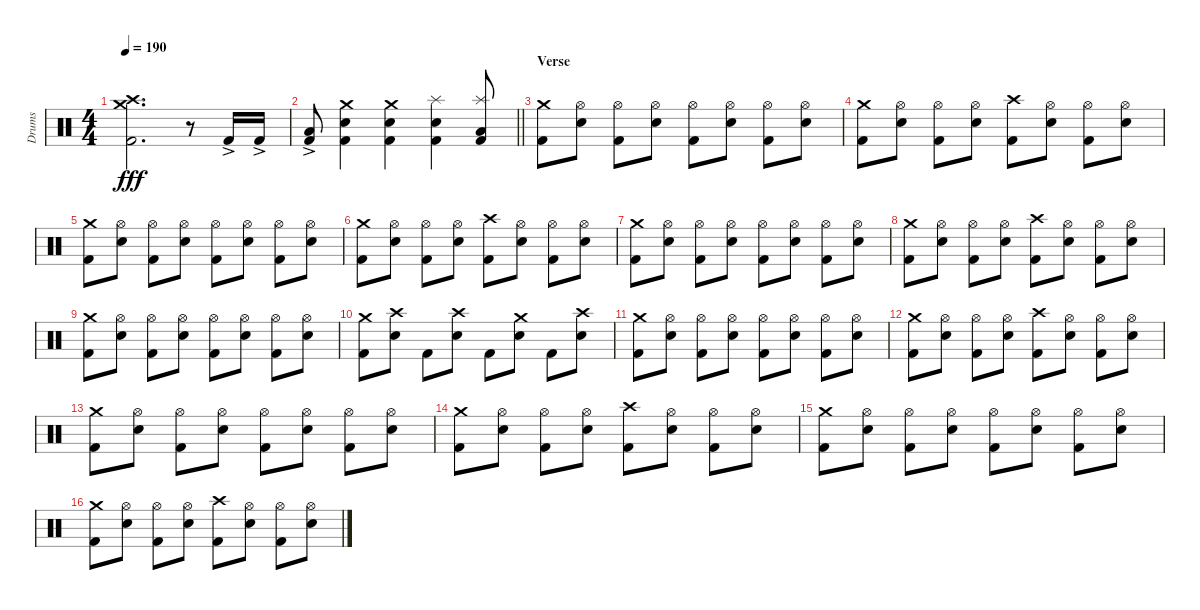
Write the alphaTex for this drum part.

\track ("Drums" "Drums") {instrument percussion}
\staff {score}
\articulation defaults
\ts (4 4)
\tempo 190
\clef neutral
\ks c
("Crash high (hit)" "Crash medium (hit)" "Kick (hit) 2").2{d dy fff} r.8 "Kick (hit) 2"{ac}.16 "Kick (hit) 2"{ac}.16 |
\barLineRight lightlight
("Low Tom (hit)" "Kick (hit) 2"{ac}).8 ("Crash medium (hit)" "Electric Snare (hit)" "Kick (hit) 2").4 ("Crash medium (hit)" "Electric Snare (hit)" "Kick (hit) 2").4 ("Splash (hit)" "Electric Snare (hit)" "Kick (hit) 2").4 ("Splash (hit)" "Low Floor Tom (hit)" "Kick (hit) 2").8 |
\section ("" "Verse")
("Crash medium (hit)" "Kick (hit) 2").8 ("Hi-Hat (open)" "Electric Snare (hit)").8 ("Hi-Hat (open)" "Kick (hit) 2").8 ("Hi-Hat (open)" "Electric Snare (hit)").8 ("Hi-Hat (open)" "Kick (hit) 2").8 ("Hi-Hat (open)" "Electric Snare (hit)").8 ("Hi-Hat (open)" "Kick (hit) 2").8 ("Hi-Hat (open)" "Electric Snare (hit)").8 |
("Crash medium (hit)" "Kick (hit) 2").8 ("Hi-Hat (open)" "Electric Snare (hit)").8 ("Hi-Hat (open)" "Kick (hit) 2").8 ("Hi-Hat (open)" "Electric Snare (hit)").8 ("Crash high (hit)" "Kick (hit) 2").8 ("Hi-Hat (open)" "Electric Snare (hit)").8 ("Hi-Hat (open)" "Kick (hit) 2").8 ("Hi-Hat (open)" "Electric Snare (hit)").8 |
("Crash medium (hit)" "Kick (hit) 2").8 ("Hi-Hat (open)" "Electric Snare (hit)").8 ("Hi-Hat (open)" "Kick (hit) 2").8 ("Hi-Hat (open)" "Electric Snare (hit)").8 ("Hi-Hat (open)" "Kick (hit) 2").8 ("Hi-Hat (open)" "Electric Snare (hit)").8 ("Hi-Hat (open)" "Kick (hit) 2").8 ("Hi-Hat (open)" "Electric Snare (hit)").8 |
("Crash medium (hit)" "Kick (hit) 2").8 ("Hi-Hat (open)" "Electric Snare (hit)").8 ("Hi-Hat (open)" "Kick (hit) 2").8 ("Hi-Hat (open)" "Electric Snare (hit)").8 ("Crash high (hit)" "Kick (hit) 2").8 ("Hi-Hat (open)" "Electric Snare (hit)").8 ("Hi-Hat (open)" "Kick (hit) 2").8 ("Hi-Hat (open)" "Electric Snare (hit)").8 |
("Crash medium (hit)" "Kick (hit) 2").8 ("Hi-Hat (open)" "Electric Snare (hit)").8 ("Hi-Hat (open)" "Kick (hit) 2").8 ("Hi-Hat (open)" "Electric Snare (hit)").8 ("Hi-Hat (open)" "Kick (hit) 2").8 ("Hi-Hat (open)" "Electric Snare (hit)").8 ("Hi-Hat (open)" "Kick (hit) 2").8 ("Hi-Hat (open)" "Electric Snare (hit)").8 |
("Crash medium (hit)" "Kick (hit) 2").8 ("Hi-Hat (open)" "Electric Snare (hit)").8 ("Hi-Hat (open)" "Kick (hit) 2").8 ("Hi-Hat (open)" "Electric Snare (hit)").8 ("Crash high (hit)" "Kick (hit) 2").8 ("Hi-Hat (open)" "Electric Snare (hit)").8 ("Hi-Hat (open)" "Kick (hit) 2").8 ("Hi-Hat (open)" "Electric Snare (hit)").8 |
("Crash medium (hit)" "Kick (hit) 2").8 ("Hi-Hat (open)" "Electric Snare (hit)").8 ("Hi-Hat (open)" "Kick (hit) 2").8 ("Hi-Hat (open)" "Electric Snare (hit)").8 ("Hi-Hat (open)" "Kick (hit) 2").8 ("Hi-Hat (open)" "Electric Snare (hit)").8 ("Hi-Hat (open)" "Kick (hit) 2").8 ("Hi-Hat (open)" "Electric Snare (hit)").8 |
("Crash medium (hit)" "Kick (hit) 2").8 ("Crash high (hit)" "Electric Snare (hit)").8 "Kick (hit) 2".8 ("Crash high (hit)" "Electric Snare (hit)").8 "Kick (hit) 2".8 ("Crash medium (hit)" "Electric Snare (hit)").8 "Kick (hit) 2".8 ("Crash high (hit)" "Electric Snare (hit)").8 |
("Crash medium (hit)" "Kick (hit) 2").8 ("Hi-Hat (open)" "Electric Snare (hit)").8 ("Hi-Hat (open)" "Kick (hit) 2").8 ("Hi-Hat (open)" "Electric Snare (hit)").8 ("Hi-Hat (open)" "Kick (hit) 2").8 ("Hi-Hat (open)" "Electric Snare (hit)").8 ("Hi-Hat (open)" "Kick (hit) 2").8 ("Hi-Hat (open)" "Electric Snare (hit)").8 |
("Crash medium (hit)" "Kick (hit) 2").8 ("Hi-Hat (open)" "Electric Snare (hit)").8 ("Hi-Hat (open)" "Kick (hit) 2").8 ("Hi-Hat (open)" "Electric Snare (hit)").8 ("Crash high (hit)" "Kick (hit) 2").8 ("Hi-Hat (open)" "Electric Snare (hit)").8 ("Hi-Hat (open)" "Kick (hit) 2").8 ("Hi-Hat (open)" "Electric Snare (hit)").8 |
("Crash medium (hit)" "Kick (hit) 2").8 ("Hi-Hat (open)" "Electric Snare (hit)").8 ("Hi-Hat (open)" "Kick (hit) 2").8 ("Hi-Hat (open)" "Electric Snare (hit)").8 ("Hi-Hat (open)" "Kick (hit) 2").8 ("Hi-Hat (open)" "Electric Snare (hit)").8 ("Hi-Hat (open)" "Kick (hit) 2").8 ("Hi-Hat (open)" "Electric Snare (hit)").8 |
("Crash medium (hit)" "Kick (hit) 2").8 ("Hi-Hat (open)" "Electric Snare (hit)").8 ("Hi-Hat (open)" "Kick (hit) 2").8 ("Hi-Hat (open)" "Electric Snare (hit)").8 ("Crash high (hit)" "Kick (hit) 2").8 ("Hi-Hat (open)" "Electric Snare (hit)").8 ("Hi-Hat (open)" "Kick (hit) 2").8 ("Hi-Hat (open)" "Electric Snare (hit)").8 |
("Crash medium (hit)" "Kick (hit) 2").8 ("Hi-Hat (open)" "Electric Snare (hit)").8 ("Hi-Hat (open)" "Kick (hit) 2").8 ("Hi-Hat (open)" "Electric Snare (hit)").8 ("Hi-Hat (open)" "Kick (hit) 2").8 ("Hi-Hat (open)" "Electric Snare (hit)").8 ("Hi-Hat (open)" "Kick (hit) 2").8 ("Hi-Hat (open)" "Electric Snare (hit)").8 |
("Crash medium (hit)" "Kick (hit) 2").8 ("Hi-Hat (open)" "Electric Snare (hit)").8 ("Hi-Hat (open)" "Kick (hit) 2").8 ("Hi-Hat (open)" "Electric Snare (hit)").8 ("Crash high (hit)" "Kick (hit) 2").8 ("Hi-Hat (open)" "Electric Snare (hit)").8 ("Hi-Hat (open)" "Kick (hit) 2").8 ("Hi-Hat (open)" "Electric Snare (hit)").8
